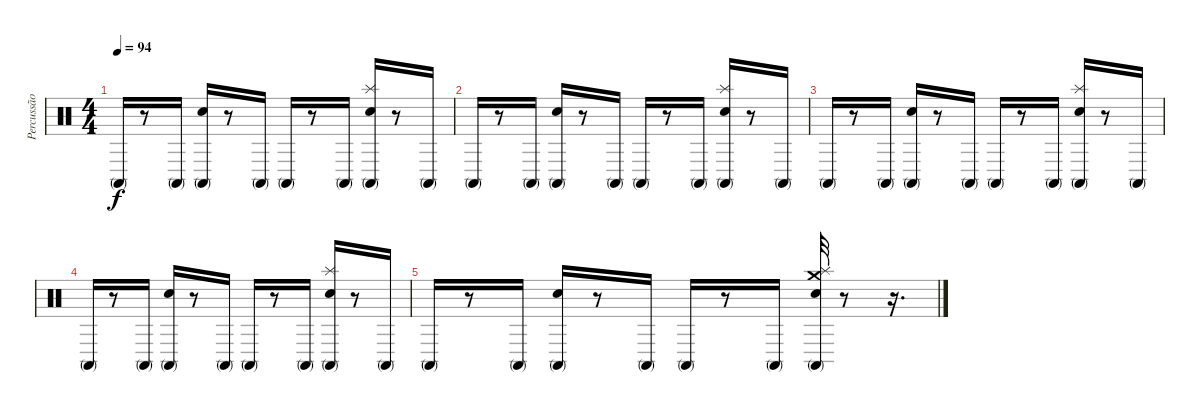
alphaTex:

\track ("Percussão" "Percussão") {instrument percussion}
\staff {score}
\articulation defaults
\ts (4 4)
\tempo 94
\clef neutral
\ks c "Conga high (mute)".16{dy f}
r.8 "Conga high (mute)".16 ("Conga high (mute)" "Hand Clap (hit)").16 r.8 "Conga high (mute)".16 "Conga high (mute)".16 r.8 "Conga high (mute)".16 ("Conga high (mute)" "Splash (hit)" "Hand Clap (hit)").16 r.8 "Conga high (mute)".16 |
"Conga high (mute)".16 r.8 "Conga high (mute)".16 ("Conga high (mute)" "Hand Clap (hit)").16 r.8 "Conga high (mute)".16 "Conga high (mute)".16 r.8 "Conga high (mute)".16 ("Conga high (mute)" "Splash (hit)" "Hand Clap (hit)").16 r.8 "Conga high (mute)".16 |
"Conga high (mute)".16 r.8 "Conga high (mute)".16 ("Conga high (mute)" "Hand Clap (hit)").16 r.8 "Conga high (mute)".16 "Conga high (mute)".16 r.8 "Conga high (mute)".16 ("Conga high (mute)" "Splash (hit)" "Hand Clap (hit)").16 r.8 "Conga high (mute)".16 |
"Conga high (mute)".16 r.8 "Conga high (mute)".16 ("Conga high (mute)" "Hand Clap (hit)").16 r.8 "Conga high (mute)".16 "Conga high (mute)".16 r.8 "Conga high (mute)".16 ("Conga high (mute)" "Splash (hit)" "Hand Clap (hit)").16 r.8 "Conga high (mute)".16 |
"Conga high (mute)".16 r.8 "Conga high (mute)".16 ("Conga high (mute)" "Hand Clap (hit)").16 r.8 "Conga high (mute)".16 "Conga high (mute)".16 r.8 "Conga high (mute)".16 ("Hand Clap (hit)" "Splash (hit)" "Crash medium (hit)" "Conga high (mute)").32 r.8 r.16{d}
